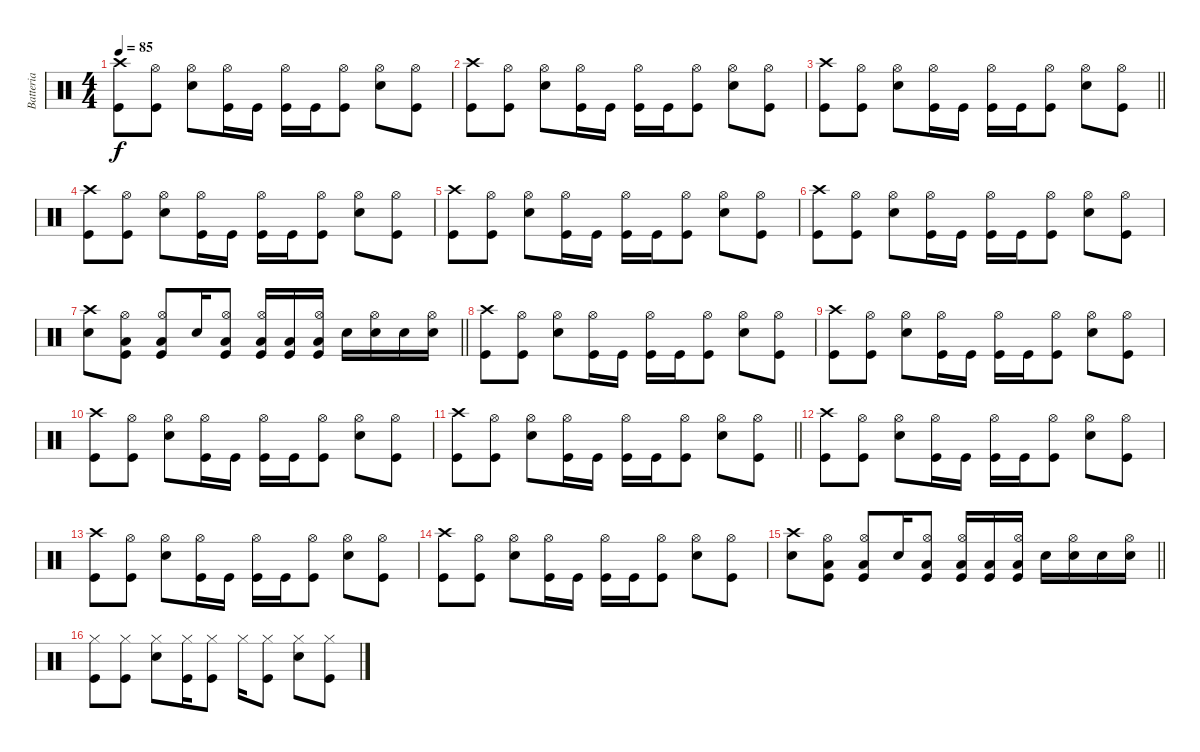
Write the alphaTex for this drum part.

\track ("Batteria" "Batteria") {instrument percussion}
\staff {score}
\articulation defaults
\ts (4 4)
\tempo 85
\clef neutral
\ks c
("Kick (hit)" "Crash high (hit)").8{dy f} ("Kick (hit)" "Hi-Hat (open)").8 ("Snare (hit) 2" "Hi-Hat (open)").8 ("Kick (hit)" "Hi-Hat (open)").16 "Kick (hit)".16 ("Kick (hit)" "Hi-Hat (open)").16 "Kick (hit)".16 ("Kick (hit)" "Hi-Hat (open)").8 ("Hi-Hat (open)" "Snare (hit) 2").8 ("Kick (hit)" "Hi-Hat (open)").8 |
("Kick (hit)" "Crash high (hit)").8 ("Kick (hit)" "Hi-Hat (open)").8 ("Snare (hit) 2" "Hi-Hat (open)").8 ("Kick (hit)" "Hi-Hat (open)").16 "Kick (hit)".16 ("Kick (hit)" "Hi-Hat (open)").16 "Kick (hit)".16 ("Kick (hit)" "Hi-Hat (open)").8 ("Hi-Hat (open)" "Snare (hit) 2").8 ("Kick (hit)" "Hi-Hat (open)").8 |
\barLineRight lightlight
("Kick (hit)" "Crash high (hit)").8 ("Kick (hit)" "Hi-Hat (open)").8 ("Snare (hit) 2" "Hi-Hat (open)").8 ("Kick (hit)" "Hi-Hat (open)").16 "Kick (hit)".16 ("Kick (hit)" "Hi-Hat (open)").16 "Kick (hit)".16 ("Kick (hit)" "Hi-Hat (open)").8 ("Hi-Hat (open)" "Snare (hit) 2").8 ("Kick (hit)" "Hi-Hat (open)").8 |
("Kick (hit)" "Crash high (hit)").8 ("Kick (hit)" "Hi-Hat (open)").8 ("Snare (hit) 2" "Hi-Hat (open)").8 ("Kick (hit)" "Hi-Hat (open)").16 "Kick (hit)".16 ("Kick (hit)" "Hi-Hat (open)").16 "Kick (hit)".16 ("Kick (hit)" "Hi-Hat (open)").8 ("Hi-Hat (open)" "Snare (hit) 2").8 ("Kick (hit)" "Hi-Hat (open)").8 |
("Kick (hit)" "Crash high (hit)").8 ("Kick (hit)" "Hi-Hat (open)").8 ("Snare (hit) 2" "Hi-Hat (open)").8 ("Kick (hit)" "Hi-Hat (open)").16 "Kick (hit)".16 ("Kick (hit)" "Hi-Hat (open)").16 "Kick (hit)".16 ("Kick (hit)" "Hi-Hat (open)").8 ("Hi-Hat (open)" "Snare (hit) 2").8 ("Kick (hit)" "Hi-Hat (open)").8 |
("Kick (hit)" "Crash high (hit)").8 ("Kick (hit)" "Hi-Hat (open)").8 ("Snare (hit) 2" "Hi-Hat (open)").8 ("Kick (hit)" "Hi-Hat (open)").16 "Kick (hit)".16 ("Kick (hit)" "Hi-Hat (open)").16 "Kick (hit)".16 ("Kick (hit)" "Hi-Hat (open)").8 ("Hi-Hat (open)" "Snare (hit) 2").8 ("Kick (hit)" "Hi-Hat (open)").8 |
\barLineRight lightlight
("Snare (hit) 2" "Crash high (hit)").8 ("Kick (hit)" "Hi-Hat (open)" "Low Floor Tom (hit)").8 ("Kick (hit)" "Hi-Hat (open)" "Low Floor Tom (hit)").8 "Snare (hit) 2".16 ("Kick (hit)" "Hi-Hat (open)" "Low Floor Tom (hit)").8 ("Kick (hit)" "Hi-Hat (open)" "Low Floor Tom (hit)").16 ("Kick (hit)" "Low Floor Tom (hit)").16 ("Kick (hit)" "Hi-Hat (open)" "Low Floor Tom (hit)").16 "Snare (hit) 2".16 ("Snare (hit) 2" "Hi-Hat (open)").16 "Snare (hit) 2".16 ("Snare (hit) 2" "Hi-Hat (open)").16 |
("Kick (hit)" "Crash high (hit)").8 ("Kick (hit)" "Hi-Hat (open)").8 ("Snare (hit) 2" "Hi-Hat (open)").8 ("Kick (hit)" "Hi-Hat (open)").16 "Kick (hit)".16 ("Kick (hit)" "Hi-Hat (open)").16 "Kick (hit)".16 ("Kick (hit)" "Hi-Hat (open)").8 ("Hi-Hat (open)" "Snare (hit) 2").8 ("Kick (hit)" "Hi-Hat (open)").8 |
("Kick (hit)" "Crash high (hit)").8 ("Kick (hit)" "Hi-Hat (open)").8 ("Snare (hit) 2" "Hi-Hat (open)").8 ("Kick (hit)" "Hi-Hat (open)").16 "Kick (hit)".16 ("Kick (hit)" "Hi-Hat (open)").16 "Kick (hit)".16 ("Kick (hit)" "Hi-Hat (open)").8 ("Hi-Hat (open)" "Snare (hit) 2").8 ("Kick (hit)" "Hi-Hat (open)").8 |
("Kick (hit)" "Crash high (hit)").8 ("Kick (hit)" "Hi-Hat (open)").8 ("Snare (hit) 2" "Hi-Hat (open)").8 ("Kick (hit)" "Hi-Hat (open)").16 "Kick (hit)".16 ("Kick (hit)" "Hi-Hat (open)").16 "Kick (hit)".16 ("Kick (hit)" "Hi-Hat (open)").8 ("Hi-Hat (open)" "Snare (hit) 2").8 ("Kick (hit)" "Hi-Hat (open)").8 |
\barLineRight lightlight
("Kick (hit)" "Crash high (hit)").8 ("Kick (hit)" "Hi-Hat (open)").8 ("Snare (hit) 2" "Hi-Hat (open)").8 ("Kick (hit)" "Hi-Hat (open)").16 "Kick (hit)".16 ("Kick (hit)" "Hi-Hat (open)").16 "Kick (hit)".16 ("Kick (hit)" "Hi-Hat (open)").8 ("Hi-Hat (open)" "Snare (hit) 2").8 ("Kick (hit)" "Hi-Hat (open)").8 |
("Kick (hit)" "Crash high (hit)").8 ("Kick (hit)" "Hi-Hat (open)").8 ("Snare (hit) 2" "Hi-Hat (open)").8 ("Kick (hit)" "Hi-Hat (open)").16 "Kick (hit)".16 ("Kick (hit)" "Hi-Hat (open)").16 "Kick (hit)".16 ("Kick (hit)" "Hi-Hat (open)").8 ("Hi-Hat (open)" "Snare (hit) 2").8 ("Kick (hit)" "Hi-Hat (open)").8 |
("Kick (hit)" "Crash high (hit)").8 ("Kick (hit)" "Hi-Hat (open)").8 ("Snare (hit) 2" "Hi-Hat (open)").8 ("Kick (hit)" "Hi-Hat (open)").16 "Kick (hit)".16 ("Kick (hit)" "Hi-Hat (open)").16 "Kick (hit)".16 ("Kick (hit)" "Hi-Hat (open)").8 ("Hi-Hat (open)" "Snare (hit) 2").8 ("Kick (hit)" "Hi-Hat (open)").8 |
("Kick (hit)" "Crash high (hit)").8 ("Kick (hit)" "Hi-Hat (open)").8 ("Snare (hit) 2" "Hi-Hat (open)").8 ("Kick (hit)" "Hi-Hat (open)").16 "Kick (hit)".16 ("Kick (hit)" "Hi-Hat (open)").16 "Kick (hit)".16 ("Kick (hit)" "Hi-Hat (open)").8 ("Hi-Hat (open)" "Snare (hit) 2").8 ("Kick (hit)" "Hi-Hat (open)").8 |
\barLineRight lightlight
("Snare (hit) 2" "Crash high (hit)").8 ("Kick (hit)" "Hi-Hat (open)" "Low Floor Tom (hit)").8 ("Kick (hit)" "Hi-Hat (open)" "Low Floor Tom (hit)").8 "Snare (hit) 2".16 ("Kick (hit)" "Hi-Hat (open)" "Low Floor Tom (hit)").8 ("Kick (hit)" "Hi-Hat (open)" "Low Floor Tom (hit)").16 ("Kick (hit)" "Low Floor Tom (hit)").16 ("Kick (hit)" "Hi-Hat (open)" "Low Floor Tom (hit)").16 "Snare (hit) 2".16 ("Snare (hit) 2" "Hi-Hat (open)").16 "Snare (hit) 2".16 ("Snare (hit) 2" "Hi-Hat (open)").16 |
("Kick (hit)" "Hi-Hat (closed)").8 ("Kick (hit)" "Hi-Hat (closed)").8 ("Snare (hit) 2" "Hi-Hat (closed)").8 ("Kick (hit)" "Hi-Hat (closed)").16 ("Kick (hit)" "Hi-Hat (closed)").8 "Hi-Hat (closed)".16 ("Kick (hit)" "Hi-Hat (closed)").8 ("Snare (hit) 2" "Hi-Hat (closed)").8 ("Kick (hit)" "Hi-Hat (closed)").8
